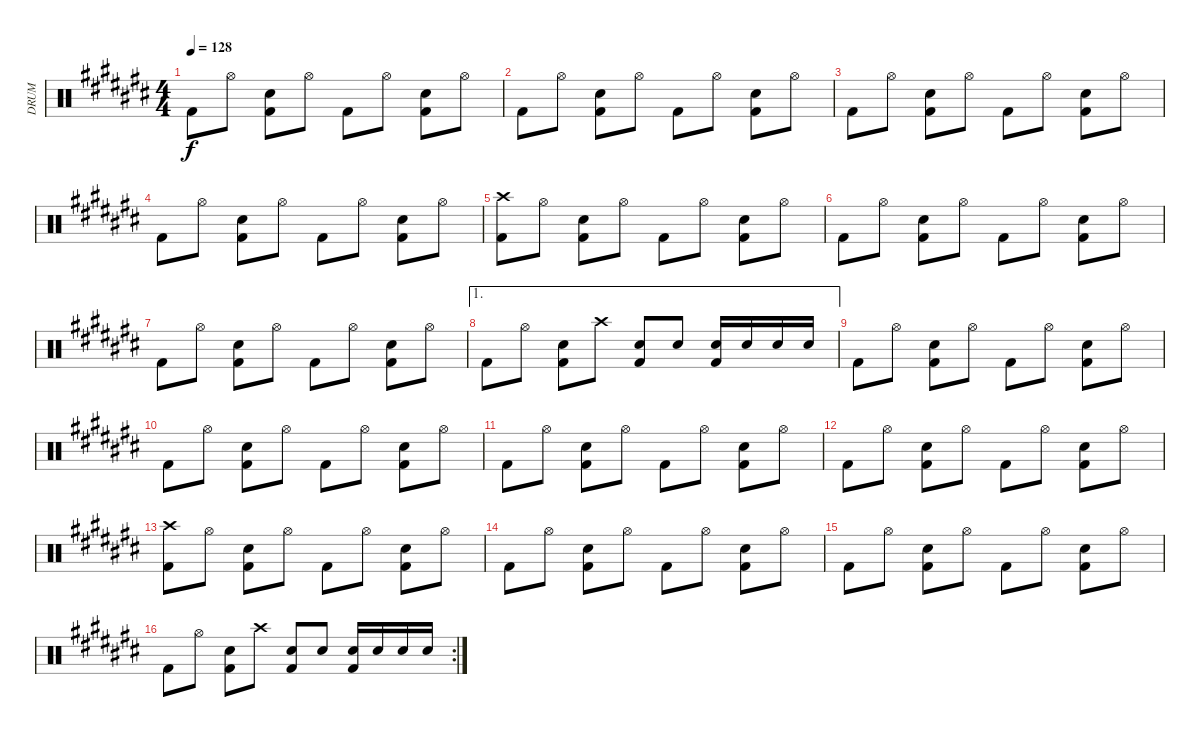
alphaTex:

\track ("DRUM" "DRUM") {instrument percussion}
\staff {score}
\articulation defaults
\ts (4 4)
\tempo 128
\clef neutral
\ks c# "Kick (hit) 2".8{dy f} "Hi-Hat (open)".8
("Electric Snare (hit)" "Kick (hit) 2").8 "Hi-Hat (open)".8 "Kick (hit) 2".8 "Hi-Hat (open)".8 ("Electric Snare (hit)" "Kick (hit) 2").8 "Hi-Hat (open)".8 |
"Kick (hit) 2".8 "Hi-Hat (open)".8 ("Electric Snare (hit)" "Kick (hit) 2").8 "Hi-Hat (open)".8 "Kick (hit) 2".8 "Hi-Hat (open)".8 ("Electric Snare (hit)" "Kick (hit) 2").8 "Hi-Hat (open)".8 |
"Kick (hit) 2".8 "Hi-Hat (open)".8 ("Electric Snare (hit)" "Kick (hit) 2").8 "Hi-Hat (open)".8 "Kick (hit) 2".8 "Hi-Hat (open)".8 ("Electric Snare (hit)" "Kick (hit) 2").8 "Hi-Hat (open)".8 |
"Kick (hit) 2".8 "Hi-Hat (open)".8 ("Electric Snare (hit)" "Kick (hit) 2").8 "Hi-Hat (open)".8 "Kick (hit) 2".8 "Hi-Hat (open)".8 ("Electric Snare (hit)" "Kick (hit) 2").8 "Hi-Hat (open)".8 |
("Crash high (hit)" "Kick (hit) 2").8 "Hi-Hat (open)".8 ("Electric Snare (hit)" "Kick (hit) 2").8 "Hi-Hat (open)".8 "Kick (hit) 2".8 "Hi-Hat (open)".8 ("Electric Snare (hit)" "Kick (hit) 2").8 "Hi-Hat (open)".8 |
"Kick (hit) 2".8 "Hi-Hat (open)".8 ("Electric Snare (hit)" "Kick (hit) 2").8 "Hi-Hat (open)".8 "Kick (hit) 2".8 "Hi-Hat (open)".8 ("Electric Snare (hit)" "Kick (hit) 2").8 "Hi-Hat (open)".8 |
"Kick (hit) 2".8 "Hi-Hat (open)".8 ("Electric Snare (hit)" "Kick (hit) 2").8 "Hi-Hat (open)".8 "Kick (hit) 2".8 "Hi-Hat (open)".8 ("Electric Snare (hit)" "Kick (hit) 2").8 "Hi-Hat (open)".8 |
\ae 1 "Kick (hit) 2".8 "Hi-Hat (open)".8
("Electric Snare (hit)" "Kick (hit) 2").8 "Crash high (hit)".8 ("Electric Snare (hit)" "Kick (hit) 2").8 "Electric Snare (hit)".8 ("Electric Snare (hit)" "Kick (hit) 2").16 "Electric Snare (hit)".16 "Electric Snare (hit)".16 "Electric Snare (hit)".16 |
"Kick (hit) 2".8 "Hi-Hat (open)".8 ("Electric Snare (hit)" "Kick (hit) 2").8 "Hi-Hat (open)".8 "Kick (hit) 2".8 "Hi-Hat (open)".8 ("Electric Snare (hit)" "Kick (hit) 2").8 "Hi-Hat (open)".8 |
"Kick (hit) 2".8 "Hi-Hat (open)".8 ("Electric Snare (hit)" "Kick (hit) 2").8 "Hi-Hat (open)".8 "Kick (hit) 2".8 "Hi-Hat (open)".8 ("Electric Snare (hit)" "Kick (hit) 2").8 "Hi-Hat (open)".8 |
"Kick (hit) 2".8 "Hi-Hat (open)".8 ("Electric Snare (hit)" "Kick (hit) 2").8 "Hi-Hat (open)".8 "Kick (hit) 2".8 "Hi-Hat (open)".8 ("Electric Snare (hit)" "Kick (hit) 2").8 "Hi-Hat (open)".8 |
"Kick (hit) 2".8 "Hi-Hat (open)".8 ("Electric Snare (hit)" "Kick (hit) 2").8 "Hi-Hat (open)".8 "Kick (hit) 2".8 "Hi-Hat (open)".8 ("Electric Snare (hit)" "Kick (hit) 2").8 "Hi-Hat (open)".8 |
("Crash high (hit)" "Kick (hit) 2").8 "Hi-Hat (open)".8 ("Electric Snare (hit)" "Kick (hit) 2").8 "Hi-Hat (open)".8 "Kick (hit) 2".8 "Hi-Hat (open)".8 ("Electric Snare (hit)" "Kick (hit) 2").8 "Hi-Hat (open)".8 |
"Kick (hit) 2".8 "Hi-Hat (open)".8 ("Electric Snare (hit)" "Kick (hit) 2").8 "Hi-Hat (open)".8 "Kick (hit) 2".8 "Hi-Hat (open)".8 ("Electric Snare (hit)" "Kick (hit) 2").8 "Hi-Hat (open)".8 |
"Kick (hit) 2".8 "Hi-Hat (open)".8 ("Electric Snare (hit)" "Kick (hit) 2").8 "Hi-Hat (open)".8 "Kick (hit) 2".8 "Hi-Hat (open)".8 ("Electric Snare (hit)" "Kick (hit) 2").8 "Hi-Hat (open)".8 |
\rc 2 "Kick (hit) 2".8 "Hi-Hat (open)".8
("Electric Snare (hit)" "Kick (hit) 2").8 "Crash high (hit)".8 ("Electric Snare (hit)" "Kick (hit) 2").8 "Electric Snare (hit)".8 ("Electric Snare (hit)" "Kick (hit) 2").16 "Electric Snare (hit)".16 "Electric Snare (hit)".16 "Electric Snare (hit)".16
